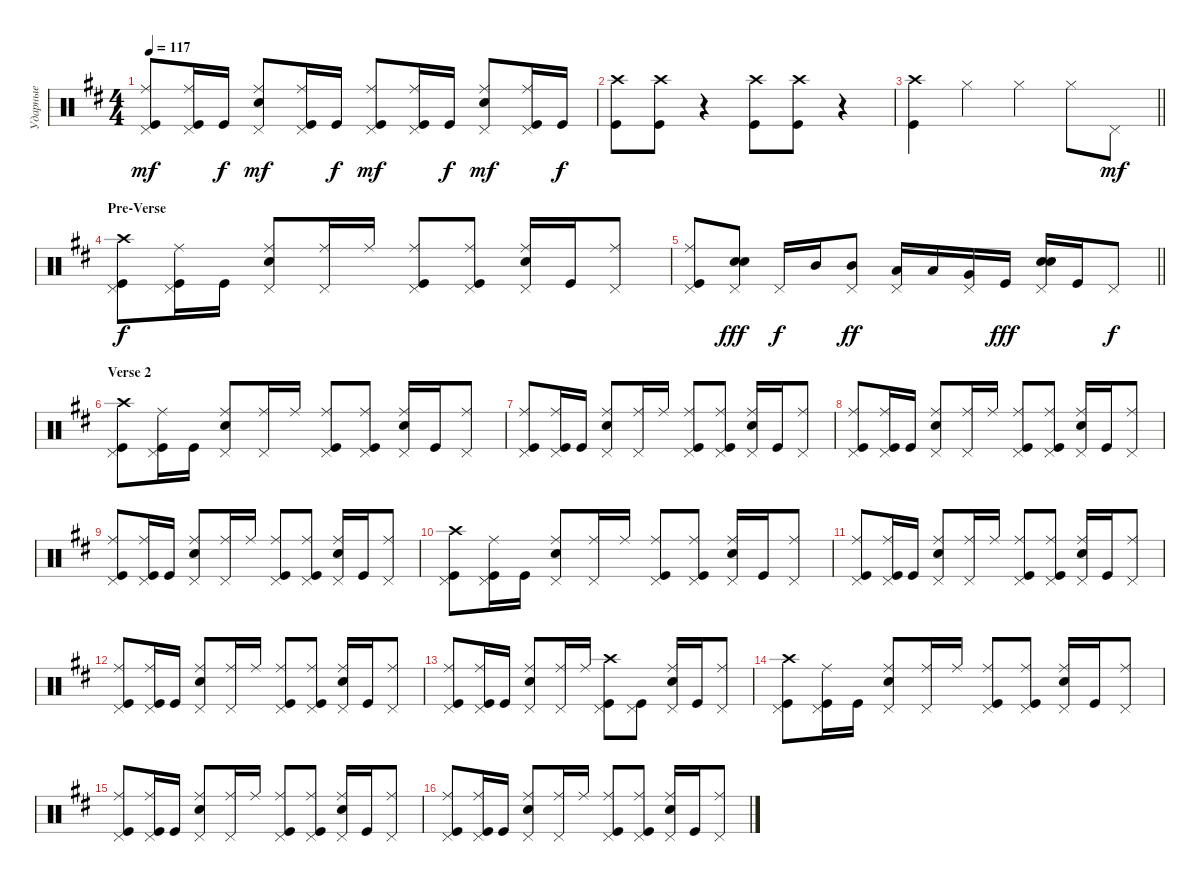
\track ("Ударные" "Ударные") {instrument percussion}
\staff {score}
\articulation defaults
\ts (4 4)
\tempo 117
\clef neutral
\ks d
("Kick (hit)" "Ride (middle)" "Pedal Hi-Hat (hit)").8{dy mf} ("Kick (hit)" "Ride (middle)" "Pedal Hi-Hat (hit)").16 "Kick (hit)".16{dy f} ("Snare (hit) 2" "Ride (middle)" "Pedal Hi-Hat (hit)").8{dy mf} ("Ride (middle)" "Kick (hit)" "Pedal Hi-Hat (hit)").16 "Kick (hit)".16{dy f} ("Kick (hit)" "Ride (middle)" "Pedal Hi-Hat (hit)").8{dy mf} ("Ride (middle)" "Kick (hit)" "Pedal Hi-Hat (hit)").16 "Kick (hit)".16{dy f} ("Snare (hit) 2" "Ride (middle)" "Pedal Hi-Hat (hit)").8{dy mf} ("Ride (middle)" "Kick (hit)" "Pedal Hi-Hat (hit)").16 "Kick (hit)".16{dy f} |
("Kick (hit)" "Crash high (hit)").8 ("Kick (hit)" "Crash high (hit)").8 r.4 ("Kick (hit)" "Crash high (hit)").8 ("Kick (hit)" "Crash high (hit)").8 r.4 |
\barLineRight lightlight
("Kick (hit)" "Crash high (hit)").4 "Hi-Hat (closed)".4 "Hi-Hat (closed)".4 "Hi-Hat (closed)".8 "Pedal Hi-Hat (hit)".8{dy mf} |
\section ("" "Pre-Verse")
("Kick (hit)" "Crash high (hit)" "Pedal Hi-Hat (hit)").8{dy f} ("Kick (hit)" "Ride (middle)" "Pedal Hi-Hat (hit)").16 "Kick (hit)".16 ("Snare (hit) 2" "Ride (middle)" "Pedal Hi-Hat (hit)").8 ("Ride (middle)" "Pedal Hi-Hat (hit)").16 "Ride (middle)".16 ("Kick (hit)" "Ride (middle)" "Pedal Hi-Hat (hit)").8 ("Ride (middle)" "Kick (hit)" "Pedal Hi-Hat (hit)").8 ("Snare (hit) 2" "Ride (middle)" "Pedal Hi-Hat (hit)").16 "Kick (hit)".16 ("Ride (middle)" "Pedal Hi-Hat (hit)").8 |
\barLineRight lightlight
("Kick (hit)" "Pedal Hi-Hat (hit)" "Ride (middle)").8 ("Snare (hit) 2" "Snare (hit) 2" "Pedal Hi-Hat (hit)").8{bd 480 dy fff} "Pedal Hi-Hat (hit)".16{dy f} "Mid Tom (hit)".16 ("Pedal Hi-Hat (hit)" "Mid Tom (hit)").8{dy ff} ("Pedal Hi-Hat (hit)" "Low Tom (hit)").16 "Low Tom (hit)".16 ("Pedal Hi-Hat (hit)" "Very Low Tom (hit)").16 "Kick (hit)".16{dy fff} ("Snare (hit) 2" "Pedal Hi-Hat (hit)" "Snare (hit) 2").16{bd 60} "Kick (hit)".16 "Pedal Hi-Hat (hit)".8{dy f} |
\section ("" "Verse 2")
("Kick (hit)" "Crash high (hit)" "Pedal Hi-Hat (hit)").8 ("Kick (hit)" "Ride (middle)" "Pedal Hi-Hat (hit)").16 "Kick (hit)".16 ("Snare (hit) 2" "Ride (middle)" "Pedal Hi-Hat (hit)").8 ("Ride (middle)" "Pedal Hi-Hat (hit)").16 "Ride (middle)".16 ("Kick (hit)" "Ride (middle)" "Pedal Hi-Hat (hit)").8 ("Ride (middle)" "Kick (hit)" "Pedal Hi-Hat (hit)").8 ("Snare (hit) 2" "Ride (middle)" "Pedal Hi-Hat (hit)").16 "Kick (hit)".16 ("Ride (middle)" "Pedal Hi-Hat (hit)").8 |
("Kick (hit)" "Ride (middle)" "Pedal Hi-Hat (hit)").8 ("Kick (hit)" "Ride (middle)" "Pedal Hi-Hat (hit)").16 "Kick (hit)".16 ("Snare (hit) 2" "Ride (middle)" "Pedal Hi-Hat (hit)").8 ("Ride (middle)" "Pedal Hi-Hat (hit)").16 "Ride (middle)".16 ("Kick (hit)" "Ride (middle)" "Pedal Hi-Hat (hit)").8 ("Ride (middle)" "Kick (hit)" "Pedal Hi-Hat (hit)").8 ("Snare (hit) 2" "Ride (middle)" "Pedal Hi-Hat (hit)").16 "Kick (hit)".16 ("Ride (middle)" "Pedal Hi-Hat (hit)").8 |
("Kick (hit)" "Ride (middle)" "Pedal Hi-Hat (hit)").8 ("Kick (hit)" "Ride (middle)" "Pedal Hi-Hat (hit)").16 "Kick (hit)".16 ("Snare (hit) 2" "Ride (middle)" "Pedal Hi-Hat (hit)").8 ("Ride (middle)" "Pedal Hi-Hat (hit)").16 "Ride (middle)".16 ("Kick (hit)" "Ride (middle)" "Pedal Hi-Hat (hit)").8 ("Ride (middle)" "Kick (hit)" "Pedal Hi-Hat (hit)").8 ("Snare (hit) 2" "Ride (middle)" "Pedal Hi-Hat (hit)").16 "Kick (hit)".16 ("Ride (middle)" "Pedal Hi-Hat (hit)").8 |
("Kick (hit)" "Ride (middle)" "Pedal Hi-Hat (hit)").8 ("Kick (hit)" "Ride (middle)" "Pedal Hi-Hat (hit)").16 "Kick (hit)".16 ("Snare (hit) 2" "Ride (middle)" "Pedal Hi-Hat (hit)").8 ("Ride (middle)" "Pedal Hi-Hat (hit)").16 "Ride (middle)".16 ("Kick (hit)" "Ride (middle)" "Pedal Hi-Hat (hit)").8 ("Ride (middle)" "Kick (hit)" "Pedal Hi-Hat (hit)").8 ("Snare (hit) 2" "Ride (middle)" "Pedal Hi-Hat (hit)").16 "Kick (hit)".16 ("Ride (middle)" "Pedal Hi-Hat (hit)").8 |
("Kick (hit)" "Crash high (hit)" "Pedal Hi-Hat (hit)").8 ("Kick (hit)" "Ride (middle)" "Pedal Hi-Hat (hit)").16 "Kick (hit)".16 ("Snare (hit) 2" "Ride (middle)" "Pedal Hi-Hat (hit)").8 ("Ride (middle)" "Pedal Hi-Hat (hit)").16 "Ride (middle)".16 ("Kick (hit)" "Ride (middle)" "Pedal Hi-Hat (hit)").8 ("Ride (middle)" "Kick (hit)" "Pedal Hi-Hat (hit)").8 ("Snare (hit) 2" "Ride (middle)" "Pedal Hi-Hat (hit)").16 "Kick (hit)".16 ("Ride (middle)" "Pedal Hi-Hat (hit)").8 |
("Kick (hit)" "Ride (middle)" "Pedal Hi-Hat (hit)").8 ("Kick (hit)" "Ride (middle)" "Pedal Hi-Hat (hit)").16 "Kick (hit)".16 ("Snare (hit) 2" "Ride (middle)" "Pedal Hi-Hat (hit)").8 ("Ride (middle)" "Pedal Hi-Hat (hit)").16 "Ride (middle)".16 ("Kick (hit)" "Ride (middle)" "Pedal Hi-Hat (hit)").8 ("Ride (middle)" "Kick (hit)" "Pedal Hi-Hat (hit)").8 ("Snare (hit) 2" "Ride (middle)" "Pedal Hi-Hat (hit)").16 "Kick (hit)".16 ("Ride (middle)" "Pedal Hi-Hat (hit)").8 |
("Kick (hit)" "Ride (middle)" "Pedal Hi-Hat (hit)").8 ("Kick (hit)" "Ride (middle)" "Pedal Hi-Hat (hit)").16 "Kick (hit)".16 ("Snare (hit) 2" "Ride (middle)" "Pedal Hi-Hat (hit)").8 ("Ride (middle)" "Pedal Hi-Hat (hit)").16 "Ride (middle)".16 ("Kick (hit)" "Ride (middle)" "Pedal Hi-Hat (hit)").8 ("Ride (middle)" "Kick (hit)" "Pedal Hi-Hat (hit)").8 ("Snare (hit) 2" "Ride (middle)" "Pedal Hi-Hat (hit)").16 "Kick (hit)".16 ("Ride (middle)" "Pedal Hi-Hat (hit)").8 |
("Kick (hit)" "Ride (middle)" "Pedal Hi-Hat (hit)").8 ("Kick (hit)" "Ride (middle)" "Pedal Hi-Hat (hit)").16 "Kick (hit)".16 ("Snare (hit) 2" "Ride (middle)" "Pedal Hi-Hat (hit)").8 ("Ride (middle)" "Pedal Hi-Hat (hit)").16 "Ride (middle)".16 ("Kick (hit)" "Crash high (hit)" "Pedal Hi-Hat (hit)").8 ("Kick (hit)" "Pedal Hi-Hat (hit)").8 ("Snare (hit) 2" "Ride (middle)" "Pedal Hi-Hat (hit)").16 "Kick (hit)".16 ("Ride (middle)" "Pedal Hi-Hat (hit)").8 |
("Kick (hit)" "Crash high (hit)" "Pedal Hi-Hat (hit)").8 ("Kick (hit)" "Ride (middle)" "Pedal Hi-Hat (hit)").16 "Kick (hit)".16 ("Snare (hit) 2" "Ride (middle)" "Pedal Hi-Hat (hit)").8 ("Ride (middle)" "Pedal Hi-Hat (hit)").16 "Ride (middle)".16 ("Kick (hit)" "Ride (middle)" "Pedal Hi-Hat (hit)").8 ("Ride (middle)" "Kick (hit)" "Pedal Hi-Hat (hit)").8 ("Snare (hit) 2" "Ride (middle)" "Pedal Hi-Hat (hit)").16 "Kick (hit)".16 ("Ride (middle)" "Pedal Hi-Hat (hit)").8 |
("Kick (hit)" "Ride (middle)" "Pedal Hi-Hat (hit)").8 ("Kick (hit)" "Ride (middle)" "Pedal Hi-Hat (hit)").16 "Kick (hit)".16 ("Snare (hit) 2" "Ride (middle)" "Pedal Hi-Hat (hit)").8 ("Ride (middle)" "Pedal Hi-Hat (hit)").16 "Ride (middle)".16 ("Kick (hit)" "Ride (middle)" "Pedal Hi-Hat (hit)").8 ("Ride (middle)" "Kick (hit)" "Pedal Hi-Hat (hit)").8 ("Snare (hit) 2" "Ride (middle)" "Pedal Hi-Hat (hit)").16 "Kick (hit)".16 ("Ride (middle)" "Pedal Hi-Hat (hit)").8 |
("Kick (hit)" "Ride (middle)" "Pedal Hi-Hat (hit)").8 ("Kick (hit)" "Ride (middle)" "Pedal Hi-Hat (hit)").16 "Kick (hit)".16 ("Snare (hit) 2" "Ride (middle)" "Pedal Hi-Hat (hit)").8 ("Ride (middle)" "Pedal Hi-Hat (hit)").16 "Ride (middle)".16 ("Kick (hit)" "Ride (middle)" "Pedal Hi-Hat (hit)").8 ("Ride (middle)" "Kick (hit)" "Pedal Hi-Hat (hit)").8 ("Snare (hit) 2" "Ride (middle)" "Pedal Hi-Hat (hit)").16 "Kick (hit)".16 ("Ride (middle)" "Pedal Hi-Hat (hit)").8
